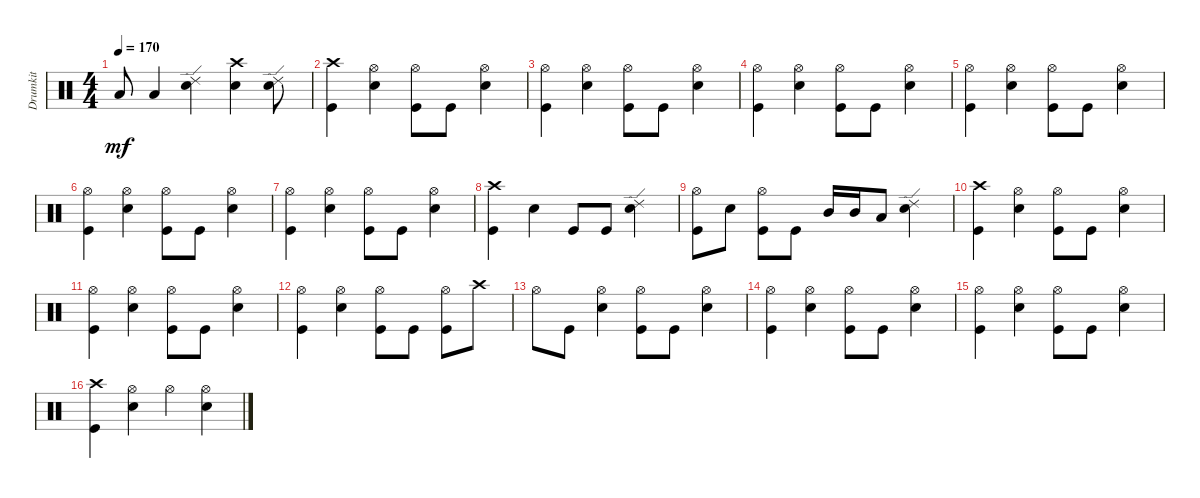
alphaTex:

\track ("Drumkit" "Drumkit") {instrument percussion}
\staff {score}
\articulation defaults
\ts (4 4)
\tempo 170
\clef neutral
\ks c "Low Floor Tom (hit)".8{dy mf} "Low Floor Tom (hit)".4
("Snare (hit) 2" "Ride (edge) 2").4 ("Snare (hit) 2" "Crash high (hit)").4 ("Snare (hit) 2" "Ride (edge) 2").8 |
("Kick (hit)" "Crash high (hit)").4 ("Hi-Hat (open)" "Snare (hit) 2").4 ("Hi-Hat (open)" "Kick (hit)").8 "Kick (hit)".8 ("Hi-Hat (open)" "Snare (hit) 2").4 |
("Hi-Hat (open)" "Kick (hit)").4 ("Hi-Hat (open)" "Snare (hit) 2").4 ("Hi-Hat (open)" "Kick (hit)").8 "Kick (hit)".8 ("Hi-Hat (open)" "Snare (hit) 2").4 |
("Hi-Hat (open)" "Kick (hit)").4 ("Hi-Hat (open)" "Snare (hit) 2").4 ("Hi-Hat (open)" "Kick (hit)").8 "Kick (hit)".8 ("Hi-Hat (open)" "Snare (hit) 2").4 |
("Hi-Hat (open)" "Kick (hit)").4 ("Hi-Hat (open)" "Snare (hit) 2").4 ("Hi-Hat (open)" "Kick (hit)").8 "Kick (hit)".8 ("Hi-Hat (open)" "Snare (hit) 2").4 |
("Hi-Hat (open)" "Kick (hit)").4 ("Hi-Hat (open)" "Snare (hit) 2").4 ("Hi-Hat (open)" "Kick (hit)").8 "Kick (hit)".8 ("Hi-Hat (open)" "Snare (hit) 2").4 |
("Hi-Hat (open)" "Kick (hit)").4 ("Hi-Hat (open)" "Snare (hit) 2").4 ("Hi-Hat (open)" "Kick (hit)").8 "Kick (hit)".8 ("Hi-Hat (open)" "Snare (hit) 2").4 |
("Kick (hit)" "Crash high (hit)").4 "Snare (hit) 2".4 "Kick (hit)".8 "Kick (hit)".8 ("Snare (hit) 2" "Ride (edge) 2").4 |
("Kick (hit)" "Hi-Hat (open)").8 "Snare (hit) 2".8 ("Kick (hit)" "Hi-Hat (open)").8 "Kick (hit)".8 "Mid Tom (hit)".16 "Mid Tom (hit)".16 "Low Tom (hit)".8 ("Snare (hit) 2" "Ride (edge) 2").4 |
("Kick (hit)" "Crash high (hit)").4 ("Hi-Hat (open)" "Snare (hit) 2").4 ("Hi-Hat (open)" "Kick (hit)").8 "Kick (hit)".8 ("Hi-Hat (open)" "Snare (hit) 2").4 |
("Hi-Hat (open)" "Kick (hit)").4 ("Hi-Hat (open)" "Snare (hit) 2").4 ("Hi-Hat (open)" "Kick (hit)").8 "Kick (hit)".8 ("Hi-Hat (open)" "Snare (hit) 2").4 |
("Hi-Hat (open)" "Kick (hit)").4 ("Hi-Hat (open)" "Snare (hit) 2").4 ("Hi-Hat (open)" "Kick (hit)").8 "Kick (hit)".8 ("Hi-Hat (open)" "Kick (hit)").8 "Crash high (hit)".8 |
"Hi-Hat (open)".8 "Kick (hit)".8 ("Snare (hit) 2" "Hi-Hat (open)").4 ("Kick (hit)" "Hi-Hat (open)").8 "Kick (hit)".8 ("Snare (hit) 2" "Hi-Hat (open)").4 |
("Hi-Hat (open)" "Kick (hit)").4 ("Hi-Hat (open)" "Snare (hit) 2").4 ("Hi-Hat (open)" "Kick (hit)").8 "Kick (hit)".8 ("Hi-Hat (open)" "Snare (hit) 2").4 |
("Hi-Hat (open)" "Kick (hit)").4 ("Hi-Hat (open)" "Snare (hit) 2").4 ("Hi-Hat (open)" "Kick (hit)").8 "Kick (hit)".8 ("Hi-Hat (open)" "Snare (hit) 2").4 |
("Kick (hit)" "Crash high (hit)").4 ("Snare (hit) 2" "Hi-Hat (open)").4 "Hi-Hat (open)".4 ("Snare (hit) 2" "Hi-Hat (open)").4
